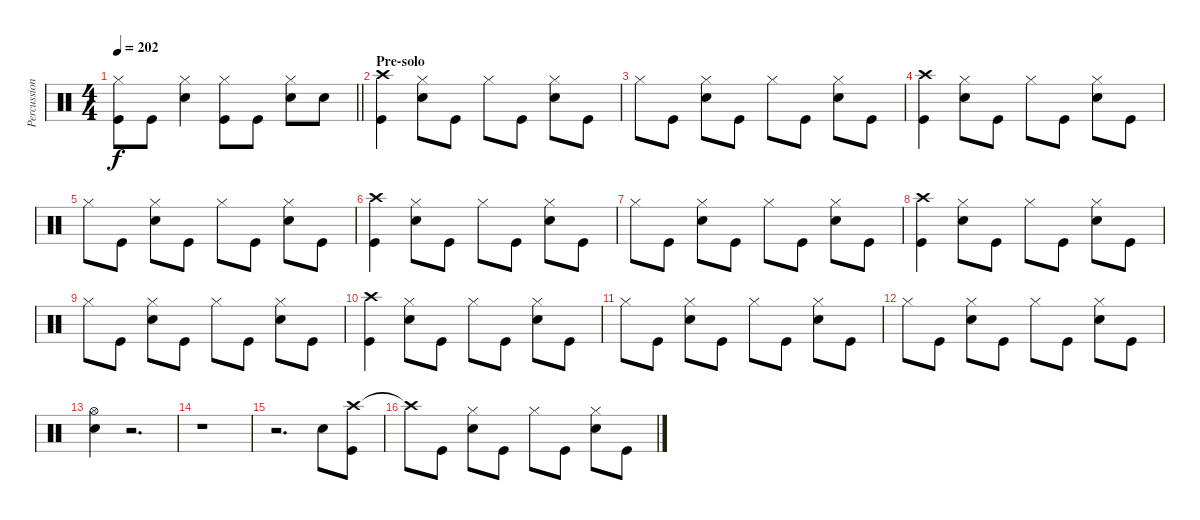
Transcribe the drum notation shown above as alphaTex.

\track ("Percussion" "Percussion") {instrument percussion}
\staff {score}
\articulation defaults
\ts (4 4)
\tempo 202
\clef neutral
\barLineRight lightlight
\ks c
("Hi-Hat (closed)" "Kick (hit)").8{dy f} "Kick (hit)".8 ("Hi-Hat (closed)" "Snare (hit) 2").4 ("Hi-Hat (closed)" "Kick (hit)").8 "Kick (hit)".8 ("Hi-Hat (closed)" "Snare (hit) 2").8 "Snare (hit) 2".8 |
\section ("" "Pre-solo")
("Crash high (hit)" "Kick (hit)").4 ("Hi-Hat (closed)" "Snare (hit) 2").8 "Kick (hit)".8 "Hi-Hat (closed)".8 "Kick (hit)".8 ("Hi-Hat (closed)" "Snare (hit) 2").8 "Kick (hit)".8 |
"Hi-Hat (closed)".8 "Kick (hit)".8 ("Hi-Hat (closed)" "Snare (hit) 2").8 "Kick (hit)".8 "Hi-Hat (closed)".8 "Kick (hit)".8 ("Hi-Hat (closed)" "Snare (hit) 2").8 "Kick (hit)".8 |
("Crash high (hit)" "Kick (hit)").4 ("Hi-Hat (closed)" "Snare (hit) 2").8 "Kick (hit)".8 "Hi-Hat (closed)".8 "Kick (hit)".8 ("Hi-Hat (closed)" "Snare (hit) 2").8 "Kick (hit)".8 |
"Hi-Hat (closed)".8 "Kick (hit)".8 ("Hi-Hat (closed)" "Snare (hit) 2").8 "Kick (hit)".8 "Hi-Hat (closed)".8 "Kick (hit)".8 ("Hi-Hat (closed)" "Snare (hit) 2").8 "Kick (hit)".8 |
("Crash high (hit)" "Kick (hit)").4 ("Hi-Hat (closed)" "Snare (hit) 2").8 "Kick (hit)".8 "Hi-Hat (closed)".8 "Kick (hit)".8 ("Hi-Hat (closed)" "Snare (hit) 2").8 "Kick (hit)".8 |
"Hi-Hat (closed)".8 "Kick (hit)".8 ("Hi-Hat (closed)" "Snare (hit) 2").8 "Kick (hit)".8 "Hi-Hat (closed)".8 "Kick (hit)".8 ("Hi-Hat (closed)" "Snare (hit) 2").8 "Kick (hit)".8 |
("Crash high (hit)" "Kick (hit)").4 ("Hi-Hat (closed)" "Snare (hit) 2").8 "Kick (hit)".8 "Hi-Hat (closed)".8 "Kick (hit)".8 ("Hi-Hat (closed)" "Snare (hit) 2").8 "Kick (hit)".8 |
"Hi-Hat (closed)".8 "Kick (hit)".8 ("Hi-Hat (closed)" "Snare (hit) 2").8 "Kick (hit)".8 "Hi-Hat (closed)".8 "Kick (hit)".8 ("Hi-Hat (closed)" "Snare (hit) 2").8 "Kick (hit)".8 |
("Crash high (hit)" "Kick (hit)").4 ("Hi-Hat (closed)" "Snare (hit) 2").8 "Kick (hit)".8 "Hi-Hat (closed)".8 "Kick (hit)".8 ("Hi-Hat (closed)" "Snare (hit) 2").8 "Kick (hit)".8 |
"Hi-Hat (closed)".8 "Kick (hit)".8 ("Hi-Hat (closed)" "Snare (hit) 2").8 "Kick (hit)".8 "Hi-Hat (closed)".8 "Kick (hit)".8 ("Hi-Hat (closed)" "Snare (hit) 2").8 "Kick (hit)".8 |
"Hi-Hat (closed)".8 "Kick (hit)".8 ("Hi-Hat (closed)" "Snare (hit) 2").8 "Kick (hit)".8 "Hi-Hat (closed)".8 "Kick (hit)".8 ("Hi-Hat (closed)" "Snare (hit) 2").8 "Kick (hit)".8 |
("Hi-Hat (open)" "Snare (hit) 2").4 r.2{d} |
r.1 |
r.2{d} "Snare (hit) 2".8 ("Crash high (hit)" "Kick (hit)").8 |
"Crash high (hit)"{t}.8 "Kick (hit)".8 ("Hi-Hat (closed)" "Snare (hit) 2").8 "Kick (hit)".8 "Hi-Hat (closed)".8 "Kick (hit)".8 ("Hi-Hat (closed)" "Snare (hit) 2").8 "Kick (hit)".8
